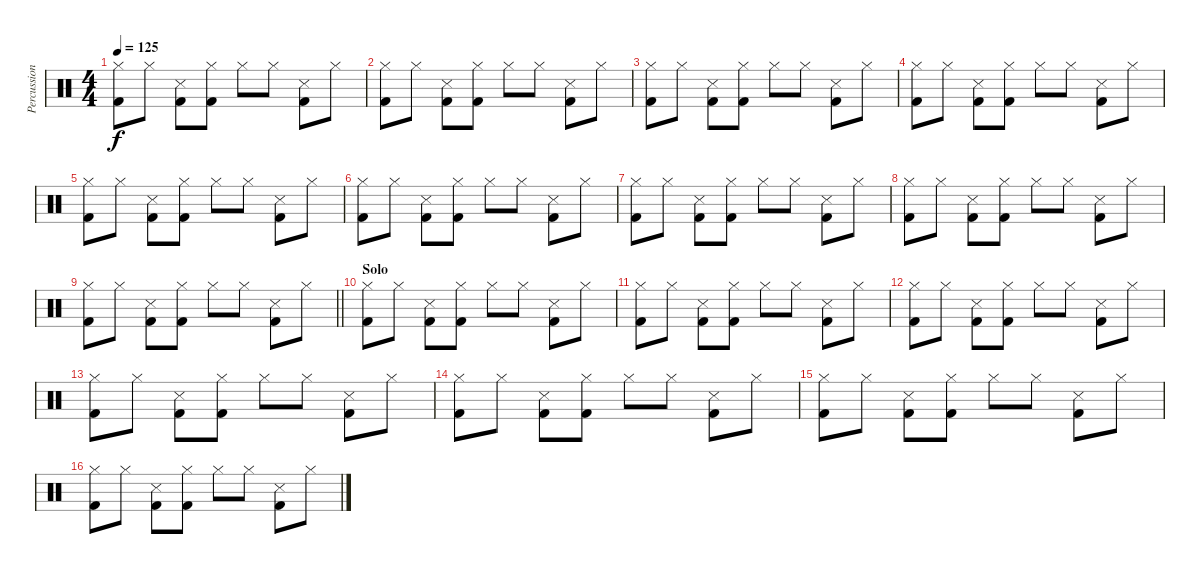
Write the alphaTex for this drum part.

\track ("Percussion" "Percussion") {instrument percussion}
\staff {score}
\articulation defaults
\ts (4 4)
\tempo 125
\clef neutral
\ks c
("Hi-Hat (closed)" "Kick (hit) 2").8{dy f} "Hi-Hat (closed)".8 ("Snare (side stick) 3" "Kick (hit) 2").8 ("Hi-Hat (closed)" "Kick (hit) 2").8 "Hi-Hat (closed)".8 "Hi-Hat (closed)".8 ("Snare (side stick) 3" "Kick (hit) 2").8 "Hi-Hat (closed)".8 |
("Hi-Hat (closed)" "Kick (hit) 2").8 "Hi-Hat (closed)".8 ("Snare (side stick) 3" "Kick (hit) 2").8 ("Hi-Hat (closed)" "Kick (hit) 2").8 "Hi-Hat (closed)".8 "Hi-Hat (closed)".8 ("Snare (side stick) 3" "Kick (hit) 2").8 "Hi-Hat (closed)".8 |
("Hi-Hat (closed)" "Kick (hit) 2").8 "Hi-Hat (closed)".8 ("Snare (side stick) 3" "Kick (hit) 2").8 ("Hi-Hat (closed)" "Kick (hit) 2").8 "Hi-Hat (closed)".8 "Hi-Hat (closed)".8 ("Snare (side stick) 3" "Kick (hit) 2").8 "Hi-Hat (closed)".8 |
("Hi-Hat (closed)" "Kick (hit) 2").8 "Hi-Hat (closed)".8 ("Snare (side stick) 3" "Kick (hit) 2").8 ("Hi-Hat (closed)" "Kick (hit) 2").8 "Hi-Hat (closed)".8 "Hi-Hat (closed)".8 ("Snare (side stick) 3" "Kick (hit) 2").8 "Hi-Hat (closed)".8 |
("Hi-Hat (closed)" "Kick (hit) 2").8 "Hi-Hat (closed)".8 ("Snare (side stick) 3" "Kick (hit) 2").8 ("Hi-Hat (closed)" "Kick (hit) 2").8 "Hi-Hat (closed)".8 "Hi-Hat (closed)".8 ("Snare (side stick) 3" "Kick (hit) 2").8 "Hi-Hat (closed)".8 |
("Hi-Hat (closed)" "Kick (hit) 2").8 "Hi-Hat (closed)".8 ("Snare (side stick) 3" "Kick (hit) 2").8 ("Hi-Hat (closed)" "Kick (hit) 2").8 "Hi-Hat (closed)".8 "Hi-Hat (closed)".8 ("Snare (side stick) 3" "Kick (hit) 2").8 "Hi-Hat (closed)".8 |
("Hi-Hat (closed)" "Kick (hit) 2").8 "Hi-Hat (closed)".8 ("Snare (side stick) 3" "Kick (hit) 2").8 ("Hi-Hat (closed)" "Kick (hit) 2").8 "Hi-Hat (closed)".8 "Hi-Hat (closed)".8 ("Snare (side stick) 3" "Kick (hit) 2").8 "Hi-Hat (closed)".8 |
("Hi-Hat (closed)" "Kick (hit) 2").8 "Hi-Hat (closed)".8 ("Snare (side stick) 3" "Kick (hit) 2").8 ("Hi-Hat (closed)" "Kick (hit) 2").8 "Hi-Hat (closed)".8 "Hi-Hat (closed)".8 ("Snare (side stick) 3" "Kick (hit) 2").8 "Hi-Hat (closed)".8 |
\barLineRight lightlight
("Hi-Hat (closed)" "Kick (hit) 2").8 "Hi-Hat (closed)".8 ("Snare (side stick) 3" "Kick (hit) 2").8 ("Hi-Hat (closed)" "Kick (hit) 2").8 "Hi-Hat (closed)".8 "Hi-Hat (closed)".8 ("Snare (side stick) 3" "Kick (hit) 2").8 "Hi-Hat (closed)".8 |
\section ("" "Solo")
("Hi-Hat (closed)" "Kick (hit) 2").8 "Hi-Hat (closed)".8 ("Snare (side stick) 3" "Kick (hit) 2").8 ("Hi-Hat (closed)" "Kick (hit) 2").8 "Hi-Hat (closed)".8 "Hi-Hat (closed)".8 ("Snare (side stick) 3" "Kick (hit) 2").8 "Hi-Hat (closed)".8 |
("Hi-Hat (closed)" "Kick (hit) 2").8 "Hi-Hat (closed)".8 ("Snare (side stick) 3" "Kick (hit) 2").8 ("Hi-Hat (closed)" "Kick (hit) 2").8 "Hi-Hat (closed)".8 "Hi-Hat (closed)".8 ("Snare (side stick) 3" "Kick (hit) 2").8 "Hi-Hat (closed)".8 |
("Hi-Hat (closed)" "Kick (hit) 2").8 "Hi-Hat (closed)".8 ("Snare (side stick) 3" "Kick (hit) 2").8 ("Hi-Hat (closed)" "Kick (hit) 2").8 "Hi-Hat (closed)".8 "Hi-Hat (closed)".8 ("Snare (side stick) 3" "Kick (hit) 2").8 "Hi-Hat (closed)".8 |
("Hi-Hat (closed)" "Kick (hit) 2").8 "Hi-Hat (closed)".8 ("Snare (side stick) 3" "Kick (hit) 2").8 ("Hi-Hat (closed)" "Kick (hit) 2").8 "Hi-Hat (closed)".8 "Hi-Hat (closed)".8 ("Snare (side stick) 3" "Kick (hit) 2").8 "Hi-Hat (closed)".8 |
("Hi-Hat (closed)" "Kick (hit) 2").8 "Hi-Hat (closed)".8 ("Snare (side stick) 3" "Kick (hit) 2").8 ("Hi-Hat (closed)" "Kick (hit) 2").8 "Hi-Hat (closed)".8 "Hi-Hat (closed)".8 ("Snare (side stick) 3" "Kick (hit) 2").8 "Hi-Hat (closed)".8 |
("Hi-Hat (closed)" "Kick (hit) 2").8 "Hi-Hat (closed)".8 ("Snare (side stick) 3" "Kick (hit) 2").8 ("Hi-Hat (closed)" "Kick (hit) 2").8 "Hi-Hat (closed)".8 "Hi-Hat (closed)".8 ("Snare (side stick) 3" "Kick (hit) 2").8 "Hi-Hat (closed)".8 |
("Hi-Hat (closed)" "Kick (hit) 2").8 "Hi-Hat (closed)".8 ("Snare (side stick) 3" "Kick (hit) 2").8 ("Hi-Hat (closed)" "Kick (hit) 2").8 "Hi-Hat (closed)".8 "Hi-Hat (closed)".8 ("Snare (side stick) 3" "Kick (hit) 2").8 "Hi-Hat (closed)".8
